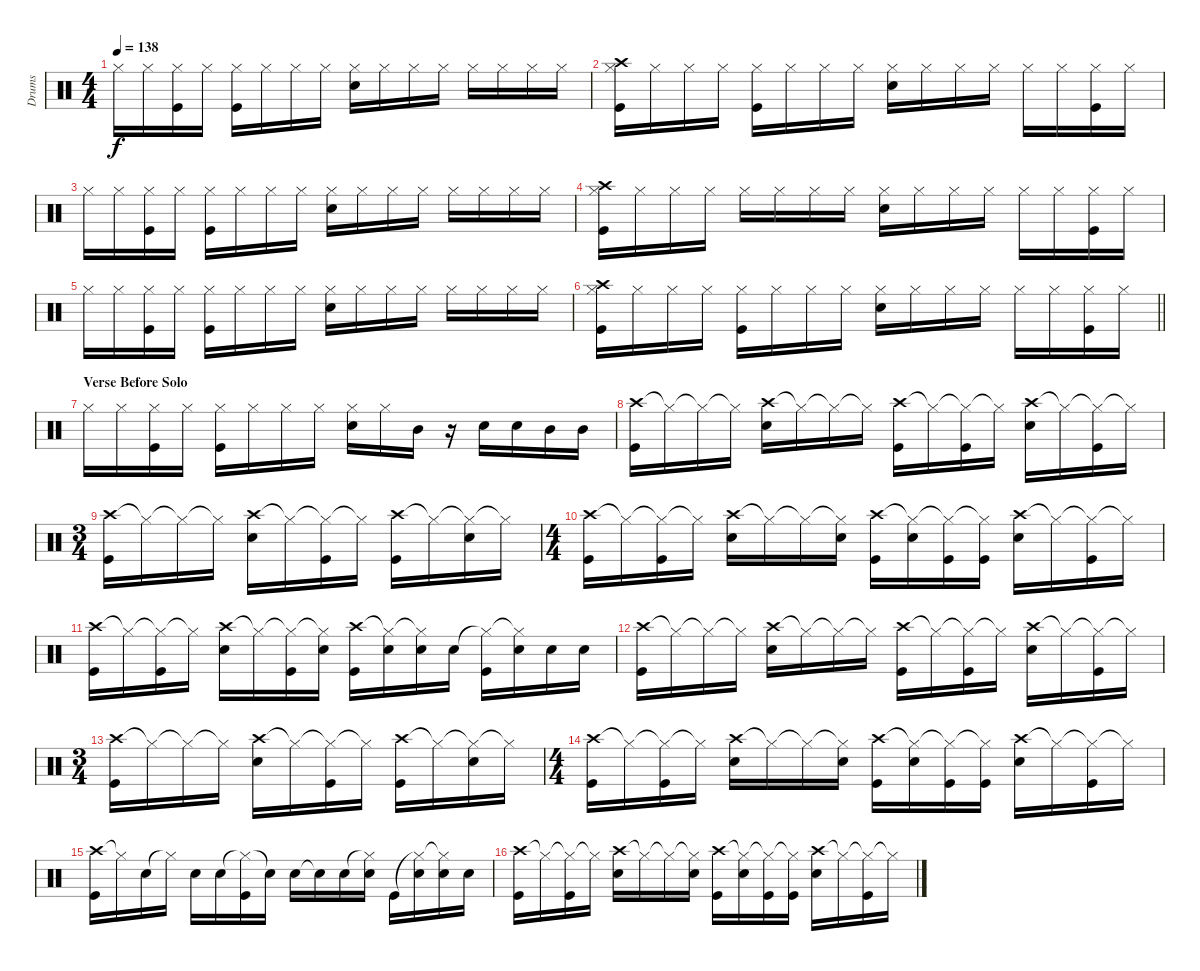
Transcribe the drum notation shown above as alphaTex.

\track ("Drums" "Drums") {instrument percussion}
\staff {score}
\articulation defaults
\ts (4 4)
\tempo 138
\clef neutral
\ks c "Hi-Hat (closed)".16{dy f} "Hi-Hat (closed)".16
("Hi-Hat (closed)" "Kick (hit)").16 "Hi-Hat (closed)".16 ("Hi-Hat (closed)" "Kick (hit)").16 "Hi-Hat (closed)".16 "Hi-Hat (closed)".16 "Hi-Hat (closed)".16 ("Hi-Hat (closed)" "Electric Snare (hit)").16 "Hi-Hat (closed)".16 "Hi-Hat (closed)".16 "Hi-Hat (closed)".16 "Hi-Hat (closed)".16 "Hi-Hat (closed)".16 "Hi-Hat (closed)".16 "Hi-Hat (closed)".16 |
("Crash high (hit)" "Hi-Hat (closed)" "Kick (hit)").16 "Hi-Hat (closed)".16 "Hi-Hat (closed)".16 "Hi-Hat (closed)".16 ("Hi-Hat (closed)" "Kick (hit)").16 "Hi-Hat (closed)".16 "Hi-Hat (closed)".16 "Hi-Hat (closed)".16 ("Hi-Hat (closed)" "Electric Snare (hit)").16 "Hi-Hat (closed)".16 "Hi-Hat (closed)".16 "Hi-Hat (closed)".16 "Hi-Hat (closed)".16 "Hi-Hat (closed)".16 ("Hi-Hat (closed)" "Kick (hit)").16 "Hi-Hat (closed)".16 |
"Hi-Hat (closed)".16 "Hi-Hat (closed)".16 ("Hi-Hat (closed)" "Kick (hit)").16 "Hi-Hat (closed)".16 ("Hi-Hat (closed)" "Kick (hit)").16 "Hi-Hat (closed)".16 "Hi-Hat (closed)".16 "Hi-Hat (closed)".16 ("Hi-Hat (closed)" "Electric Snare (hit)").16 "Hi-Hat (closed)".16 "Hi-Hat (closed)".16 "Hi-Hat (closed)".16 "Hi-Hat (closed)".16 "Hi-Hat (closed)".16 "Hi-Hat (closed)".16 "Hi-Hat (closed)".16 |
("Crash high (hit)" "Hi-Hat (closed)" "Kick (hit)").16 "Hi-Hat (closed)".16 "Hi-Hat (closed)".16 "Hi-Hat (closed)".16 "Hi-Hat (closed)".16 "Hi-Hat (closed)".16 "Hi-Hat (closed)".16 "Hi-Hat (closed)".16 ("Hi-Hat (closed)" "Electric Snare (hit)").16 "Hi-Hat (closed)".16 "Hi-Hat (closed)".16 "Hi-Hat (closed)".16 "Hi-Hat (closed)".16 "Hi-Hat (closed)".16 ("Hi-Hat (closed)" "Kick (hit)").16 "Hi-Hat (closed)".16 |
"Hi-Hat (closed)".16 "Hi-Hat (closed)".16 ("Hi-Hat (closed)" "Kick (hit)").16 "Hi-Hat (closed)".16 ("Hi-Hat (closed)" "Kick (hit)").16 "Hi-Hat (closed)".16 "Hi-Hat (closed)".16 "Hi-Hat (closed)".16 ("Hi-Hat (closed)" "Electric Snare (hit)").16 "Hi-Hat (closed)".16 "Hi-Hat (closed)".16 "Hi-Hat (closed)".16 "Hi-Hat (closed)".16 "Hi-Hat (closed)".16 "Hi-Hat (closed)".16 "Hi-Hat (closed)".16 |
\barLineRight lightlight
("Crash high (hit)" "Hi-Hat (closed)" "Kick (hit)").16 "Hi-Hat (closed)".16 "Hi-Hat (closed)".16 "Hi-Hat (closed)".16 ("Hi-Hat (closed)" "Kick (hit)").16 "Hi-Hat (closed)".16 "Hi-Hat (closed)".16 "Hi-Hat (closed)".16 ("Hi-Hat (closed)" "Electric Snare (hit)").16 "Hi-Hat (closed)".16 "Hi-Hat (closed)".16 "Hi-Hat (closed)".16 "Hi-Hat (closed)".16 "Hi-Hat (closed)".16 ("Hi-Hat (closed)" "Kick (hit)").16 "Hi-Hat (closed)".16 |
\section ("" "Verse Before Solo")
"Hi-Hat (closed)".16 "Hi-Hat (closed)".16 ("Hi-Hat (closed)" "Kick (hit)").16 "Hi-Hat (closed)".16 ("Hi-Hat (closed)" "Kick (hit)").16 "Hi-Hat (closed)".16 "Hi-Hat (closed)".16 "Hi-Hat (closed)".16 ("Hi-Hat (closed)" "Electric Snare (hit)").16 "Hi-Hat (closed)".16 "Mid Tom (hit)".16 r.16 "Electric Snare (hit)".16 "Electric Snare (hit)".16 "Mid Tom (hit)".16 "Mid Tom (hit)".16 |
("Crash high (hit)" "Kick (hit)").16 "Hi-Hat (closed)"{t}.16 "Hi-Hat (closed)"{t}.16 "Hi-Hat (closed)"{t}.16 ("Crash high (hit)" "Electric Snare (hit)").16 "Hi-Hat (closed)"{t}.16 "Hi-Hat (closed)"{t}.16 "Hi-Hat (closed)"{t}.16 ("Crash high (hit)" "Kick (hit)").16 "Hi-Hat (closed)"{t}.16 ("Hi-Hat (closed)"{t} "Kick (hit)").16 "Hi-Hat (closed)"{t}.16 ("Crash high (hit)" "Electric Snare (hit)").16 "Hi-Hat (closed)"{t}.16 ("Hi-Hat (closed)"{t} "Kick (hit)").16 "Hi-Hat (closed)"{t}.16 |
\ts (3 4)
("Crash high (hit)" "Kick (hit)").16 "Hi-Hat (closed)"{t}.16 "Hi-Hat (closed)"{t}.16 "Hi-Hat (closed)"{t}.16 ("Crash high (hit)" "Electric Snare (hit)").16 "Hi-Hat (closed)"{t}.16 ("Hi-Hat (closed)"{t} "Kick (hit)").16 "Hi-Hat (closed)"{t}.16 ("Crash high (hit)" "Kick (hit)").16 "Hi-Hat (closed)"{t}.16 ("Hi-Hat (closed)"{t} "Electric Snare (hit)").16 "Hi-Hat (closed)"{t}.16 |
\ts (4 4)
("Crash high (hit)" "Kick (hit)").16 "Hi-Hat (closed)"{t}.16 ("Hi-Hat (closed)"{t} "Kick (hit)").16 "Hi-Hat (closed)"{t}.16 ("Crash high (hit)" "Electric Snare (hit)").16 "Hi-Hat (closed)"{t}.16 "Hi-Hat (closed)"{t}.16 ("Hi-Hat (closed)"{t} "Electric Snare (hit)").16 ("Crash high (hit)" "Kick (hit)").16 ("Hi-Hat (closed)"{t} "Electric Snare (hit)").16 ("Hi-Hat (closed)"{t} "Kick (hit)").16 ("Hi-Hat (closed)"{t} "Kick (hit)").16 ("Crash high (hit)" "Electric Snare (hit)").16 "Hi-Hat (closed)"{t}.16 ("Hi-Hat (closed)"{t} "Kick (hit)").16 "Hi-Hat (closed)"{t}.16 |
("Crash high (hit)" "Kick (hit)").16 "Hi-Hat (closed)"{t}.16 ("Hi-Hat (closed)"{t} "Kick (hit)").16 "Hi-Hat (closed)"{t}.16 ("Crash high (hit)" "Electric Snare (hit)").16 "Hi-Hat (closed)"{t}.16 ("Hi-Hat (closed)"{t} "Kick (hit)").16 ("Hi-Hat (closed)"{t} "Electric Snare (hit)").16 ("Crash high (hit)" "Kick (hit)").16 ("Hi-Hat (closed)"{t} "Electric Snare (hit)").16 ("Hi-Hat (closed)"{t} "Electric Snare (hit)").16 "Electric Snare (hit)".16 ("Hi-Hat (closed)"{t} "Kick (hit)").16 ("Hi-Hat (closed)"{t} "Electric Snare (hit)").16 "Electric Snare (hit)".16 "Electric Snare (hit)".16 |
("Crash high (hit)" "Kick (hit)").16 "Hi-Hat (closed)"{t}.16 "Hi-Hat (closed)"{t}.16 "Hi-Hat (closed)"{t}.16 ("Crash high (hit)" "Electric Snare (hit)").16 "Hi-Hat (closed)"{t}.16 "Hi-Hat (closed)"{t}.16 "Hi-Hat (closed)"{t}.16 ("Crash high (hit)" "Kick (hit)").16 "Hi-Hat (closed)"{t}.16 ("Hi-Hat (closed)"{t} "Kick (hit)").16 "Hi-Hat (closed)"{t}.16 ("Crash high (hit)" "Electric Snare (hit)").16 "Hi-Hat (closed)"{t}.16 ("Hi-Hat (closed)"{t} "Kick (hit)").16 "Hi-Hat (closed)"{t}.16 |
\ts (3 4)
("Crash high (hit)" "Kick (hit)").16 "Hi-Hat (closed)"{t}.16 "Hi-Hat (closed)"{t}.16 "Hi-Hat (closed)"{t}.16 ("Crash high (hit)" "Electric Snare (hit)").16 "Hi-Hat (closed)"{t}.16 ("Hi-Hat (closed)"{t} "Kick (hit)").16 "Hi-Hat (closed)"{t}.16 ("Crash high (hit)" "Kick (hit)").16 "Hi-Hat (closed)"{t}.16 ("Hi-Hat (closed)"{t} "Electric Snare (hit)").16 "Hi-Hat (closed)"{t}.16 |
\ts (4 4)
("Crash high (hit)" "Kick (hit)").16 "Hi-Hat (closed)"{t}.16 ("Hi-Hat (closed)"{t} "Kick (hit)").16 "Hi-Hat (closed)"{t}.16 ("Crash high (hit)" "Electric Snare (hit)").16 "Hi-Hat (closed)"{t}.16 "Hi-Hat (closed)"{t}.16 ("Hi-Hat (closed)"{t} "Electric Snare (hit)").16 ("Crash high (hit)" "Kick (hit)").16 ("Hi-Hat (closed)"{t} "Electric Snare (hit)").16 ("Hi-Hat (closed)"{t} "Kick (hit)").16 ("Hi-Hat (closed)"{t} "Kick (hit)").16 ("Crash high (hit)" "Electric Snare (hit)").16 "Hi-Hat (closed)"{t}.16 ("Hi-Hat (closed)"{t} "Kick (hit)").16 "Hi-Hat (closed)"{t}.16 |
("Crash high (hit)" "Kick (hit)").16 "Hi-Hat (closed)"{t}.16 "Electric Snare (hit)".16 "Hi-Hat (closed)"{t}.16 "Electric Snare (hit)".16 "Electric Snare (hit)".16 ("Hi-Hat (closed)"{t} "Kick (hit)").16 "Snare (hit)"{t}.16 "Electric Snare (hit)".16 "Electric Snare (hit)"{t}.16 "Electric Snare (hit)".16 ("Hi-Hat (closed)"{t} "Electric Snare (hit)").16 "Kick (hit)".16 ("Hi-Hat (closed)"{t} "Electric Snare (hit)").16 ("Hi-Hat (closed)"{t} "Electric Snare (hit)").16 "Electric Snare (hit)".16 |
("Crash high (hit)" "Kick (hit)").16 "Hi-Hat (closed)"{t}.16 ("Hi-Hat (closed)"{t} "Kick (hit)").16 "Hi-Hat (closed)"{t}.16 ("Crash high (hit)" "Electric Snare (hit)").16 "Hi-Hat (closed)"{t}.16 "Hi-Hat (closed)"{t}.16 ("Hi-Hat (closed)"{t} "Electric Snare (hit)").16 ("Crash high (hit)" "Kick (hit)").16 ("Hi-Hat (closed)"{t} "Electric Snare (hit)").16 ("Hi-Hat (closed)"{t} "Kick (hit)").16 ("Hi-Hat (closed)"{t} "Kick (hit)").16 ("Crash high (hit)" "Electric Snare (hit)").16 "Hi-Hat (closed)"{t}.16 ("Hi-Hat (closed)"{t} "Kick (hit)").16 "Hi-Hat (closed)"{t}.16
